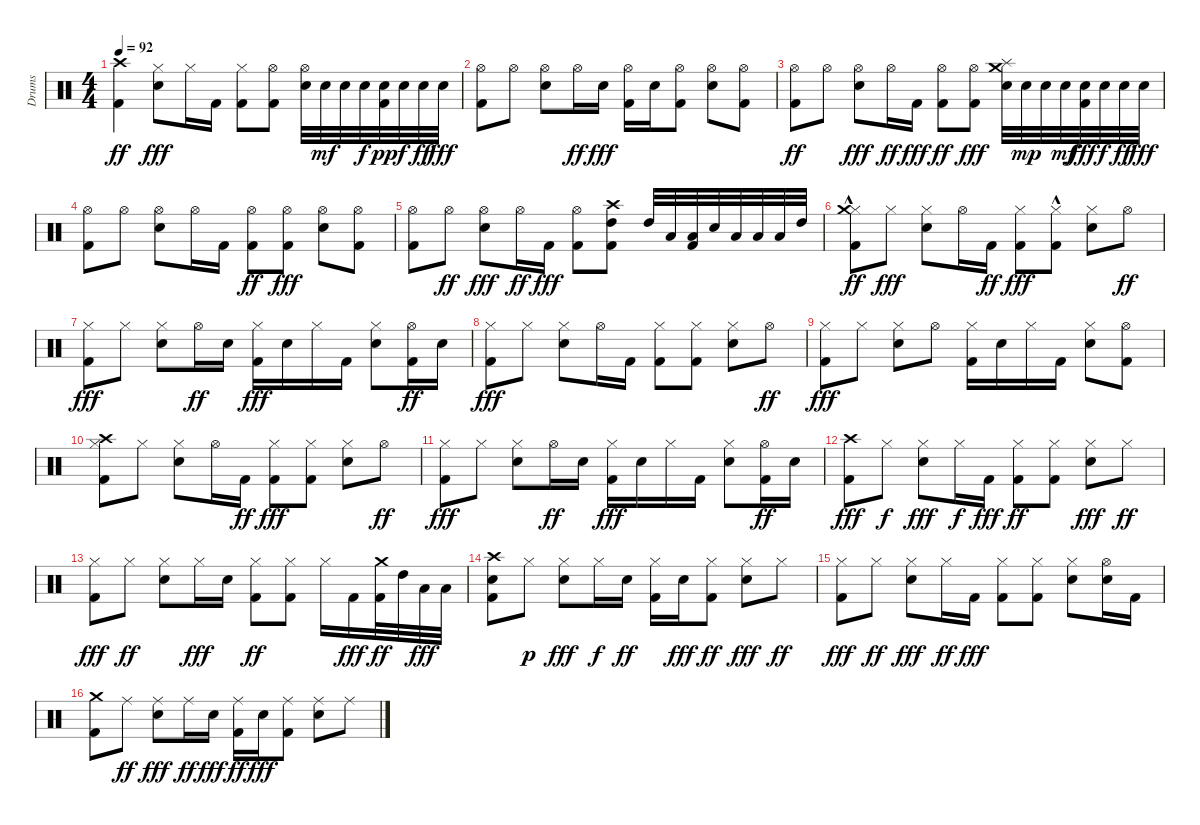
\track ("Drums" "Drums") {instrument percussion}
\staff {score}
\articulation defaults
\ts (4 4)
\tempo 92
\clef neutral
\ks c
("Kick (hit) 2" "Crash high (hit)").4{dy ff} ("Snare (hit) 2" "Hi-Hat (closed)").8{dy fff} "Hi-Hat (closed)".16 "Kick (hit) 2".16 ("Kick (hit) 2" "Hi-Hat (closed)").8 ("Kick (hit) 2" "Hi-Hat (open)").8 ("Snare (hit) 2" "Hi-Hat (open)").32 "Snare (hit) 2".32{dy mf} "Snare (hit) 2".32 "Snare (hit) 2".32{dy f} ("Kick (hit) 2" "Snare (hit) 2").32{dy pp} "Snare (hit) 2".32{dy f} "Snare (hit) 2".32{dy ff} "Snare (hit) 2".32{dy fff} |
("Kick (hit) 2" "Hi-Hat (open)").8 "Hi-Hat (open)".8 ("Snare (hit) 2" "Hi-Hat (open)").8 "Hi-Hat (open)".16{dy ff} "Snare (hit) 2".16{dy fff} ("Kick (hit) 2" "Hi-Hat (open)").16 "Snare (hit) 2".16 ("Kick (hit) 2" "Hi-Hat (open)").8 ("Snare (hit) 2" "Hi-Hat (open)").8 ("Kick (hit) 2" "Hi-Hat (open)").8 |
("Kick (hit) 2" "Hi-Hat (open)").8{dy ff} "Hi-Hat (open)".8 ("Snare (hit) 2" "Hi-Hat (open)").8{dy fff} "Hi-Hat (open)".16{dy ff} "Kick (hit) 2".16{dy fff} ("Kick (hit) 2" "Hi-Hat (open)").8{dy ff} ("Kick (hit) 2" "Hi-Hat (open)").8{dy fff} ("Snare (hit) 2" "Splash (hit)" "Crash medium (hit)").32 "Snare (hit) 2".32{dy mp} "Snare (hit) 2".32 "Snare (hit) 2".32{dy mf} ("Snare (hit) 2" "Kick (hit) 2").32{dy fff} "Snare (hit) 2".32{dy f} "Snare (hit) 2".32{dy ff} "Snare (hit) 2".32{dy fff} |
("Kick (hit) 2" "Hi-Hat (open)").8 "Hi-Hat (open)".8 ("Snare (hit) 2" "Hi-Hat (open)").8 "Hi-Hat (open)".16 "Kick (hit) 2".16 ("Kick (hit) 2" "Hi-Hat (open)").8{dy ff} ("Kick (hit) 2" "Hi-Hat (open)").8{dy fff} ("Snare (hit) 2" "Hi-Hat (open)").8 ("Kick (hit) 2" "Hi-Hat (open)").8 |
("Kick (hit) 2" "Hi-Hat (open)").8 "Hi-Hat (open)".8{dy ff} ("Snare (hit) 2" "Hi-Hat (open)").8{dy fff} "Hi-Hat (open)".16{dy ff} "Kick (hit) 2".16{dy fff} ("Kick (hit) 2" "Hi-Hat (open)").8 ("Kick (hit) 2" "High Tom (hit)" "Crash high (hit)").8 "High Tom (hit)".32 "Low Tom (hit)".32 ("Kick (hit) 2" "Low Floor Tom (hit)").32 "Snare (hit) 2".32 "Low Floor Tom (hit)".32 "Low Tom (hit)".32 "Low Floor Tom (hit)".32 "High Tom (hit)".32 |
("Kick (hit) 2" "Hi-Hat (closed)" "Crash medium (hit)"{hac}).8{dy ff} "Hi-Hat (closed)".8{dy fff} ("Snare (hit) 2" "Hi-Hat (closed)").8 "Hi-Hat (open)".16 "Kick (hit) 2".16{dy ff} ("Kick (hit) 2" "Hi-Hat (closed)").8{dy fff} ("Kick (hit) 2"{hac} "Hi-Hat (closed)").8 ("Snare (hit) 2" "Hi-Hat (closed)").8 "Hi-Hat (open)".8{dy ff} |
("Kick (hit) 2" "Hi-Hat (closed)").8{dy fff} "Hi-Hat (closed)".8 ("Snare (hit) 2" "Hi-Hat (closed)").8 "Hi-Hat (open)".16{dy ff} "Snare (hit) 2".16 ("Kick (hit) 2" "Hi-Hat (closed)").16{dy fff} "Snare (hit) 2".16 "Hi-Hat (closed)".16 "Kick (hit) 2".16 ("Snare (hit) 2" "Hi-Hat (closed)").8 ("Kick (hit) 2" "Hi-Hat (open)").16{dy ff} "Snare (hit) 2".16 |
("Kick (hit) 2" "Hi-Hat (closed)").8{dy fff} "Hi-Hat (closed)".8 ("Snare (hit) 2" "Hi-Hat (closed)").8 "Hi-Hat (open)".16 "Kick (hit) 2".16 ("Kick (hit) 2" "Hi-Hat (closed)").8 ("Kick (hit) 2" "Hi-Hat (closed)").8 ("Snare (hit) 2" "Hi-Hat (closed)").8 "Hi-Hat (open)".8{dy ff} |
("Kick (hit) 2" "Hi-Hat (closed)").8{dy fff} "Hi-Hat (closed)".8 ("Snare (hit) 2" "Hi-Hat (closed)").8 "Hi-Hat (open)".8 ("Kick (hit) 2" "Hi-Hat (closed)").16 "Snare (hit) 2".16 "Hi-Hat (closed)".16 "Kick (hit) 2".16 ("Snare (hit) 2" "Hi-Hat (closed)").8 ("Kick (hit) 2" "Hi-Hat (open)").8 |
("Kick (hit) 2" "Hi-Hat (closed)" "Crash high (hit)").8 "Hi-Hat (closed)".8 ("Snare (hit) 2" "Hi-Hat (closed)").8 "Hi-Hat (open)".16 "Kick (hit) 2".16{dy ff} ("Kick (hit) 2" "Hi-Hat (closed)").8{dy fff} ("Kick (hit) 2" "Hi-Hat (closed)").8 ("Snare (hit) 2" "Hi-Hat (closed)").8 "Hi-Hat (open)".8{dy ff} |
("Kick (hit) 2" "Hi-Hat (closed)").8{dy fff} "Hi-Hat (closed)".8 ("Snare (hit) 2" "Hi-Hat (closed)").8 "Hi-Hat (open)".16{dy ff} "Snare (hit) 2".16 ("Kick (hit) 2" "Hi-Hat (closed)").16{dy fff} "Snare (hit) 2".16 "Hi-Hat (closed)".16 "Kick (hit) 2".16 ("Snare (hit) 2" "Hi-Hat (closed)").8 ("Kick (hit) 2" "Hi-Hat (open)").16{dy ff} "Snare (hit) 2".16 |
("Kick (hit) 2" "Crash high (hit)").8{dy fff} "Hi-Hat (closed)".8{dy f} ("Snare (hit) 2" "Hi-Hat (closed)").8{dy fff} "Hi-Hat (closed)".16{dy f} "Kick (hit) 2".16{dy fff} ("Kick (hit) 2" "Hi-Hat (closed)").8{dy ff} ("Kick (hit) 2" "Hi-Hat (closed)").8 ("Snare (hit) 2" "Hi-Hat (closed)").8{dy fff} "Hi-Hat (closed)".8{dy ff} |
("Kick (hit) 2" "Hi-Hat (closed)").8{dy fff} "Hi-Hat (closed)".8{dy ff} ("Snare (hit) 2" "Hi-Hat (closed)").8 "Hi-Hat (closed)".16{dy fff} "Snare (hit) 2".16 ("Kick (hit) 2" "Hi-Hat (closed)").8{dy ff} ("Kick (hit) 2" "Hi-Hat (closed)").8 "Hi-Hat (closed)".16 "Kick (hit) 2".16{dy fff} ("Kick (hit) 2" "Crash medium (hit)").32{dy ff} "High Tom (hit)".32 "Low Tom (hit)".32{dy fff} "Low Floor Tom (hit)".32 |
("Kick (hit) 2" "Electric Snare (hit)" "Crash high (hit)").8 "Hi-Hat (closed)".8{dy p} ("Snare (hit) 2" "Hi-Hat (closed)").8{dy fff} "Hi-Hat (closed)".16{dy f} "Snare (hit) 2".16{dy ff} ("Kick (hit) 2" "Hi-Hat (closed)").16 "Snare (hit) 2".16{dy fff} ("Kick (hit) 2" "Hi-Hat (closed)").8{dy ff} ("Snare (hit) 2" "Hi-Hat (closed)").8{dy fff} "Hi-Hat (closed)".8{dy ff} |
("Kick (hit) 2" "Hi-Hat (closed)").8{dy fff} "Hi-Hat (closed)".8{dy ff} ("Snare (hit) 2" "Hi-Hat (closed)").8{dy fff} "Hi-Hat (closed)".16{dy ff} "Kick (hit) 2".16{dy fff} ("Kick (hit) 2" "Hi-Hat (closed)").8 ("Kick (hit) 2" "Hi-Hat (closed)").8 ("Snare (hit) 2" "Hi-Hat (closed)").8 ("Snare (hit) 2" "Hi-Hat (open)").16 "Kick (hit) 2".16 |
("Kick (hit) 2" "Crash medium (hit)").8 "Ride (middle)".8{dy ff} ("Snare (hit) 2" "Ride (middle)").8{dy fff} "Ride (middle)".16{dy ff} "Snare (hit) 2".16{dy fff} ("Kick (hit) 2" "Ride (middle)").16{dy ff} "Snare (hit) 2".16{dy fff} ("Kick (hit) 2" "Ride (middle)").8 ("Snare (hit) 2" "Ride (middle)").8 "Ride (middle)".8
